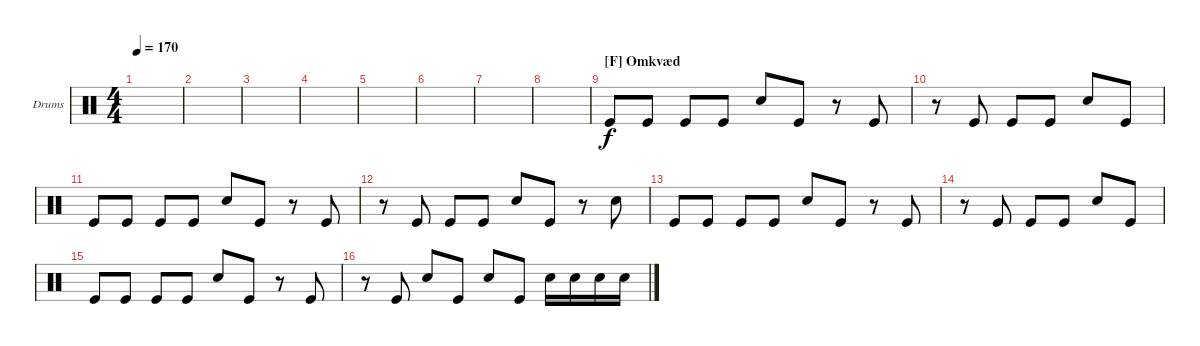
\defaultSystemsLayout 4
\bracketExtendMode groupsimilarinstruments
\firstSystemTrackNameOrientation horizontal
\otherSystemsTrackNameOrientation horizontal
\track ("Ray" "Drums") {instrument percussion}
\staff {score}
\articulation defaults
\ts (4 4)
\tempo 170
\clef neutral
\ks c
|
|
|
|
|
|
|
|
\section ("F" "Omkvæd")
"Kick (hit)".8 "Kick (hit)".8 "Kick (hit)".8 "Kick (hit)".8 "Snare (hit) 2".8 "Kick (hit)".8 r.8 "Kick (hit)".8 |
r.8 "Kick (hit)".8 "Kick (hit)".8 "Kick (hit)".8 "Snare (hit) 2".8 "Kick (hit)".8 |
"Kick (hit)".8 "Kick (hit)".8 "Kick (hit)".8 "Kick (hit)".8 "Snare (hit) 2".8 "Kick (hit)".8 r.8 "Kick (hit)".8 |
r.8 "Kick (hit)".8 "Kick (hit)".8 "Kick (hit)".8 "Snare (hit) 2".8 "Kick (hit)".8 r.8 "Snare (hit) 2".8 |
"Kick (hit)".8 "Kick (hit)".8 "Kick (hit)".8 "Kick (hit)".8 "Snare (hit) 2".8 "Kick (hit)".8 r.8 "Kick (hit)".8 |
r.8 "Kick (hit)".8 "Kick (hit)".8 "Kick (hit)".8 "Snare (hit) 2".8 "Kick (hit)".8 |
"Kick (hit)".8 "Kick (hit)".8 "Kick (hit)".8 "Kick (hit)".8 "Snare (hit) 2".8 "Kick (hit)".8 r.8 "Kick (hit)".8 |
r.8 "Kick (hit)".8 "Snare (hit) 2".8 "Kick (hit)".8 "Snare (hit) 2".8 "Kick (hit)".8 "Snare (hit) 2".16 "Snare (hit) 2".16 "Snare (hit) 2".16 "Snare (hit) 2".16
